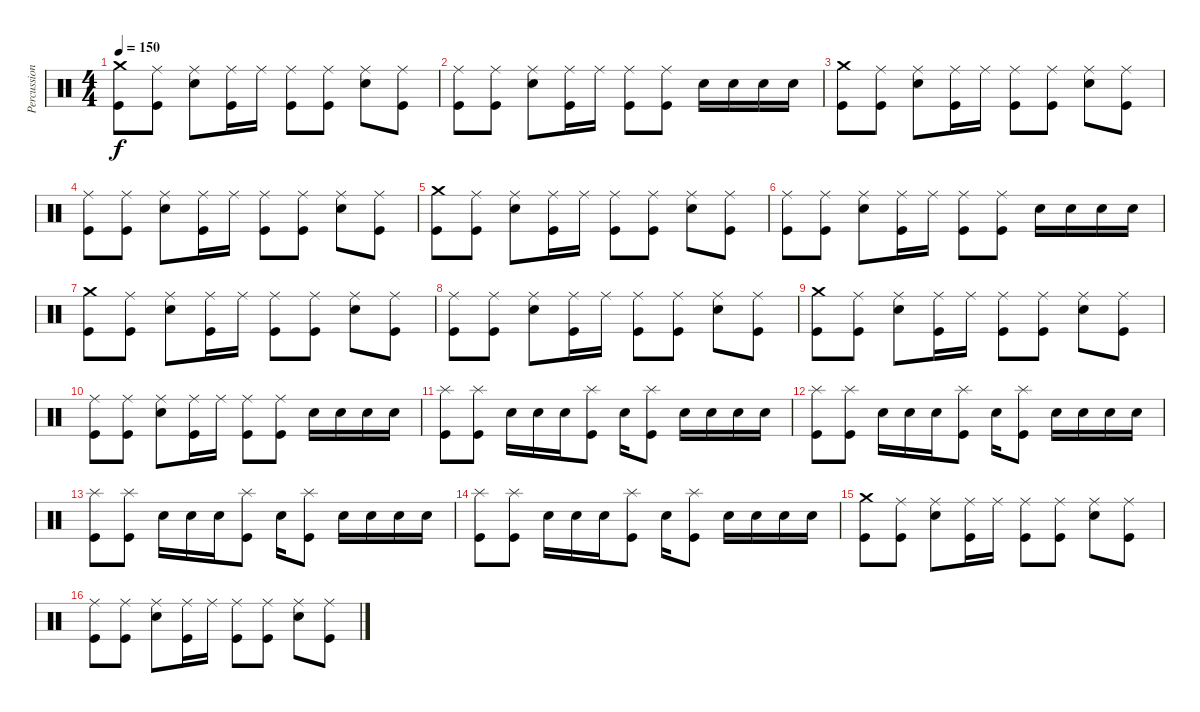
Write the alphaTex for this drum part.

\track ("Percussion" "Percussion") {instrument percussion}
\staff {score}
\articulation defaults
\ts (4 4)
\tempo 150
\clef neutral
\ks c
("Crash medium (hit)" "Kick (hit)").8{dy f} ("Ride (middle)" "Kick (hit)").8 ("Ride (middle)" "Snare (hit) 2").8 ("Ride (middle)" "Kick (hit)").16 "Ride (middle)".16 ("Ride (middle)" "Kick (hit)").8 ("Ride (middle)" "Kick (hit)").8 ("Ride (middle)" "Snare (hit) 2").8 ("Ride (middle)" "Kick (hit)").8 |
("Ride (middle)" "Kick (hit)").8 ("Ride (middle)" "Kick (hit)").8 ("Ride (middle)" "Snare (hit) 2").8 ("Ride (middle)" "Kick (hit)").16 "Ride (middle)".16 ("Ride (middle)" "Kick (hit)").8 ("Ride (middle)" "Kick (hit)").8 "Snare (hit) 2".16 "Snare (hit) 2".16 "Snare (hit) 2".16 "Snare (hit) 2".16 |
("Crash medium (hit)" "Kick (hit)").8 ("Ride (middle)" "Kick (hit)").8 ("Ride (middle)" "Snare (hit) 2").8 ("Ride (middle)" "Kick (hit)").16 "Ride (middle)".16 ("Ride (middle)" "Kick (hit)").8 ("Ride (middle)" "Kick (hit)").8 ("Ride (middle)" "Snare (hit) 2").8 ("Ride (middle)" "Kick (hit)").8 |
("Ride (middle)" "Kick (hit)").8 ("Ride (middle)" "Kick (hit)").8 ("Ride (middle)" "Snare (hit) 2").8 ("Ride (middle)" "Kick (hit)").16 "Ride (middle)".16 ("Ride (middle)" "Kick (hit)").8 ("Ride (middle)" "Kick (hit)").8 ("Ride (middle)" "Snare (hit) 2").8 ("Ride (middle)" "Kick (hit)").8 |
("Crash medium (hit)" "Kick (hit)").8 ("Ride (middle)" "Kick (hit)").8 ("Ride (middle)" "Snare (hit) 2").8 ("Ride (middle)" "Kick (hit)").16 "Ride (middle)".16 ("Ride (middle)" "Kick (hit)").8 ("Ride (middle)" "Kick (hit)").8 ("Ride (middle)" "Snare (hit) 2").8 ("Ride (middle)" "Kick (hit)").8 |
("Ride (middle)" "Kick (hit)").8 ("Ride (middle)" "Kick (hit)").8 ("Ride (middle)" "Snare (hit) 2").8 ("Ride (middle)" "Kick (hit)").16 "Ride (middle)".16 ("Ride (middle)" "Kick (hit)").8 ("Ride (middle)" "Kick (hit)").8 "Snare (hit) 2".16 "Snare (hit) 2".16 "Snare (hit) 2".16 "Snare (hit) 2".16 |
("Crash medium (hit)" "Kick (hit)").8 ("Ride (middle)" "Kick (hit)").8 ("Ride (middle)" "Snare (hit) 2").8 ("Ride (middle)" "Kick (hit)").16 "Ride (middle)".16 ("Ride (middle)" "Kick (hit)").8 ("Ride (middle)" "Kick (hit)").8 ("Ride (middle)" "Snare (hit) 2").8 ("Ride (middle)" "Kick (hit)").8 |
("Ride (middle)" "Kick (hit)").8 ("Ride (middle)" "Kick (hit)").8 ("Ride (middle)" "Snare (hit) 2").8 ("Ride (middle)" "Kick (hit)").16 "Ride (middle)".16 ("Ride (middle)" "Kick (hit)").8 ("Ride (middle)" "Kick (hit)").8 ("Ride (middle)" "Snare (hit) 2").8 ("Ride (middle)" "Kick (hit)").8 |
("Crash medium (hit)" "Kick (hit)").8 ("Ride (middle)" "Kick (hit)").8 ("Ride (middle)" "Snare (hit) 2").8 ("Ride (middle)" "Kick (hit)").16 "Ride (middle)".16 ("Ride (middle)" "Kick (hit)").8 ("Ride (middle)" "Kick (hit)").8 ("Ride (middle)" "Snare (hit) 2").8 ("Ride (middle)" "Kick (hit)").8 |
("Ride (middle)" "Kick (hit)").8 ("Ride (middle)" "Kick (hit)").8 ("Ride (middle)" "Snare (hit) 2").8 ("Ride (middle)" "Kick (hit)").16 "Ride (middle)".16 ("Ride (middle)" "Kick (hit)").8 ("Ride (middle)" "Kick (hit)").8 "Snare (hit) 2".16 "Snare (hit) 2".16 "Snare (hit) 2".16 "Snare (hit) 2".16 |
("Splash (hit)" "Kick (hit)").8 ("Splash (hit)" "Kick (hit)").8 "Snare (hit) 2".16 "Snare (hit) 2".16 "Snare (hit) 2".16 ("Splash (hit)" "Kick (hit)").8 "Snare (hit) 2".16 ("Splash (hit)" "Kick (hit)").8 "Snare (hit) 2".16 "Snare (hit) 2".16 "Snare (hit) 2".16 "Snare (hit) 2".16 |
("Splash (hit)" "Kick (hit)").8 ("Splash (hit)" "Kick (hit)").8 "Snare (hit) 2".16 "Snare (hit) 2".16 "Snare (hit) 2".16 ("Splash (hit)" "Kick (hit)").8 "Snare (hit) 2".16 ("Splash (hit)" "Kick (hit)").8 "Snare (hit) 2".16 "Snare (hit) 2".16 "Snare (hit) 2".16 "Snare (hit) 2".16 |
("Splash (hit)" "Kick (hit)").8 ("Splash (hit)" "Kick (hit)").8 "Snare (hit) 2".16 "Snare (hit) 2".16 "Snare (hit) 2".16 ("Splash (hit)" "Kick (hit)").8 "Snare (hit) 2".16 ("Splash (hit)" "Kick (hit)").8 "Snare (hit) 2".16 "Snare (hit) 2".16 "Snare (hit) 2".16 "Snare (hit) 2".16 |
("Splash (hit)" "Kick (hit)").8 ("Splash (hit)" "Kick (hit)").8 "Snare (hit) 2".16 "Snare (hit) 2".16 "Snare (hit) 2".16 ("Splash (hit)" "Kick (hit)").8 "Snare (hit) 2".16 ("Splash (hit)" "Kick (hit)").8 "Snare (hit) 2".16 "Snare (hit) 2".16 "Snare (hit) 2".16 "Snare (hit) 2".16 |
("Crash medium (hit)" "Kick (hit)").8 ("Ride (middle)" "Kick (hit)").8 ("Ride (middle)" "Snare (hit) 2").8 ("Ride (middle)" "Kick (hit)").16 "Ride (middle)".16 ("Ride (middle)" "Kick (hit)").8 ("Ride (middle)" "Kick (hit)").8 ("Ride (middle)" "Snare (hit) 2").8 ("Ride (middle)" "Kick (hit)").8 |
("Ride (middle)" "Kick (hit)").8 ("Ride (middle)" "Kick (hit)").8 ("Ride (middle)" "Snare (hit) 2").8 ("Ride (middle)" "Kick (hit)").16 "Ride (middle)".16 ("Ride (middle)" "Kick (hit)").8 ("Ride (middle)" "Kick (hit)").8 ("Ride (middle)" "Snare (hit) 2").8 ("Ride (middle)" "Kick (hit)").8
